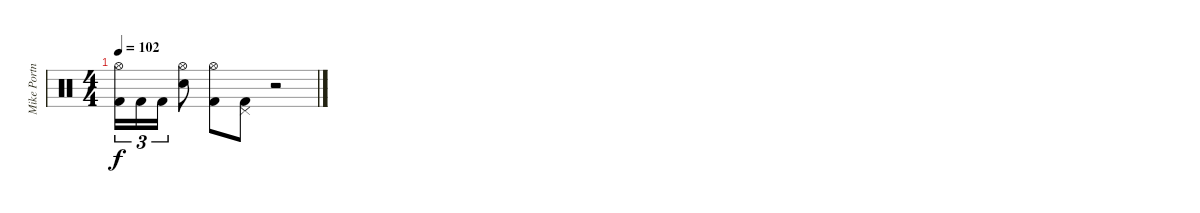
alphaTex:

\track ("Mike Portnoy Drum " "Mike Portn") {instrument percussion}
\staff {score}
\articulation defaults
\ts (4 4)
\tempo 102
\clef neutral
\ks c
("Hi-Hat (open)" "Kick (hit) 2").16{tu (3 2) dy f} "Kick (hit) 2".16{tu (3 2)} "Kick (hit) 2".16{tu (3 2)} ("Hi-Hat (open)" "Electric Snare (hit)").8 ("Hi-Hat (open)" "Kick (hit) 2").8 ("Pedal Hi-Hat (hit)" "Kick (hit) 2").8 r.2
